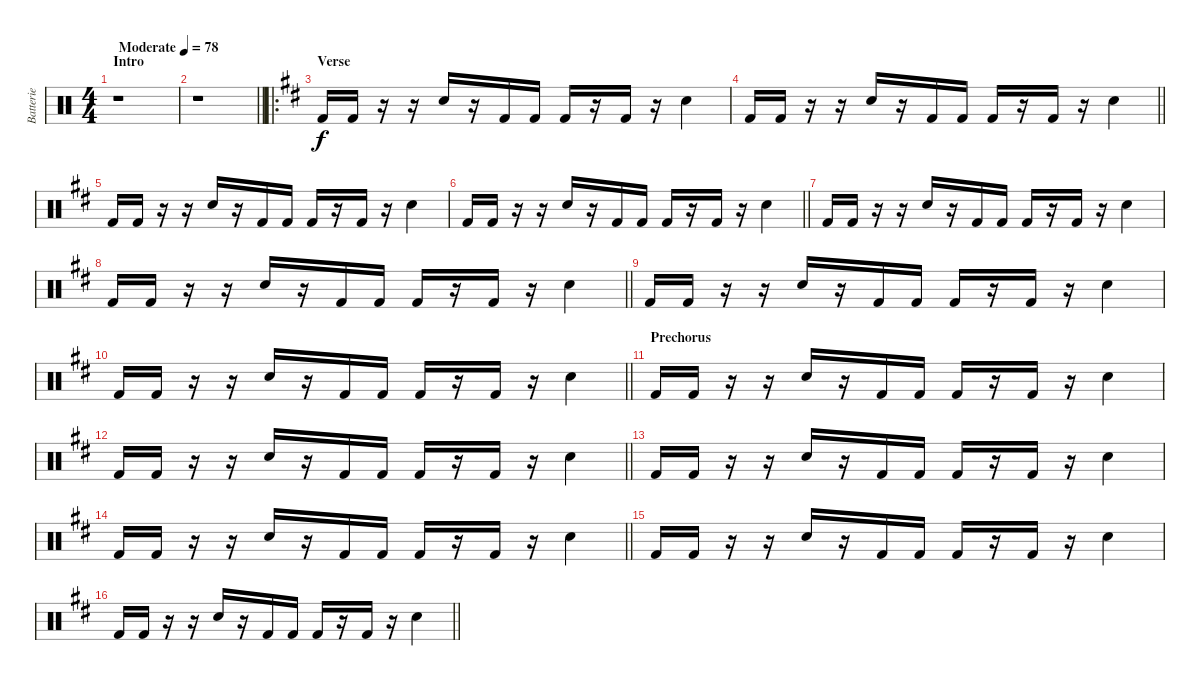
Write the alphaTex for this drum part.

\track ("Batterie" "Batterie") {instrument percussion}
\staff {score}
\articulation defaults
\ts (4 4)
\section ("" "Intro")
\tempo (78 "Moderate")
\clef neutral
\ks c
r.1{dy f} |
\barLineRight lightlight
r.1 |
\ro
\section ("" "Verse")
\ks d "Kick (hit) 2".16 "Kick (hit) 2".16
r.16 r.16 "Snare (hit) 2".16 r.16 "Kick (hit) 2".16 "Kick (hit) 2".16 "Kick (hit) 2".16 r.16 "Kick (hit) 2".16 r.16 "Snare (hit) 2".4 |
\barLineRight lightlight "Kick (hit) 2".16 "Kick (hit) 2".16
r.16 r.16 "Snare (hit) 2".16 r.16 "Kick (hit) 2".16 "Kick (hit) 2".16 "Kick (hit) 2".16 r.16 "Kick (hit) 2".16 r.16 "Snare (hit) 2".4 |
"Kick (hit) 2".16 "Kick (hit) 2".16 r.16 r.16 "Snare (hit) 2".16 r.16 "Kick (hit) 2".16 "Kick (hit) 2".16 "Kick (hit) 2".16 r.16 "Kick (hit) 2".16 r.16 "Snare (hit) 2".4 |
\barLineRight lightlight "Kick (hit) 2".16 "Kick (hit) 2".16
r.16 r.16 "Snare (hit) 2".16 r.16 "Kick (hit) 2".16 "Kick (hit) 2".16 "Kick (hit) 2".16 r.16 "Kick (hit) 2".16 r.16 "Snare (hit) 2".4 |
"Kick (hit) 2".16 "Kick (hit) 2".16 r.16 r.16 "Snare (hit) 2".16 r.16 "Kick (hit) 2".16 "Kick (hit) 2".16 "Kick (hit) 2".16 r.16 "Kick (hit) 2".16 r.16 "Snare (hit) 2".4 |
\barLineRight lightlight "Kick (hit) 2".16 "Kick (hit) 2".16
r.16 r.16 "Snare (hit) 2".16 r.16 "Kick (hit) 2".16 "Kick (hit) 2".16 "Kick (hit) 2".16 r.16 "Kick (hit) 2".16 r.16 "Snare (hit) 2".4 |
"Kick (hit) 2".16 "Kick (hit) 2".16 r.16 r.16 "Snare (hit) 2".16 r.16 "Kick (hit) 2".16 "Kick (hit) 2".16 "Kick (hit) 2".16 r.16 "Kick (hit) 2".16 r.16 "Snare (hit) 2".4 |
\barLineRight lightlight "Kick (hit) 2".16 "Kick (hit) 2".16
r.16 r.16 "Snare (hit) 2".16 r.16 "Kick (hit) 2".16 "Kick (hit) 2".16 "Kick (hit) 2".16 r.16 "Kick (hit) 2".16 r.16 "Snare (hit) 2".4 |
\section ("" "Prechorus")
"Kick (hit) 2".16 "Kick (hit) 2".16 r.16 r.16 "Snare (hit) 2".16 r.16 "Kick (hit) 2".16 "Kick (hit) 2".16 "Kick (hit) 2".16 r.16 "Kick (hit) 2".16 r.16 "Snare (hit) 2".4 |
\barLineRight lightlight "Kick (hit) 2".16 "Kick (hit) 2".16
r.16 r.16 "Snare (hit) 2".16 r.16 "Kick (hit) 2".16 "Kick (hit) 2".16 "Kick (hit) 2".16 r.16 "Kick (hit) 2".16 r.16 "Snare (hit) 2".4 |
"Kick (hit) 2".16 "Kick (hit) 2".16 r.16 r.16 "Snare (hit) 2".16 r.16 "Kick (hit) 2".16 "Kick (hit) 2".16 "Kick (hit) 2".16 r.16 "Kick (hit) 2".16 r.16 "Snare (hit) 2".4 |
\barLineRight lightlight "Kick (hit) 2".16 "Kick (hit) 2".16
r.16 r.16 "Snare (hit) 2".16 r.16 "Kick (hit) 2".16 "Kick (hit) 2".16 "Kick (hit) 2".16 r.16 "Kick (hit) 2".16 r.16 "Snare (hit) 2".4 |
"Kick (hit) 2".16 "Kick (hit) 2".16 r.16 r.16 "Snare (hit) 2".16 r.16 "Kick (hit) 2".16 "Kick (hit) 2".16 "Kick (hit) 2".16 r.16 "Kick (hit) 2".16 r.16 "Snare (hit) 2".4 |
\barLineRight lightlight "Kick (hit) 2".16 "Kick (hit) 2".16
r.16 r.16 "Snare (hit) 2".16 r.16 "Kick (hit) 2".16 "Kick (hit) 2".16 "Kick (hit) 2".16 r.16 "Kick (hit) 2".16 r.16 "Snare (hit) 2".4
